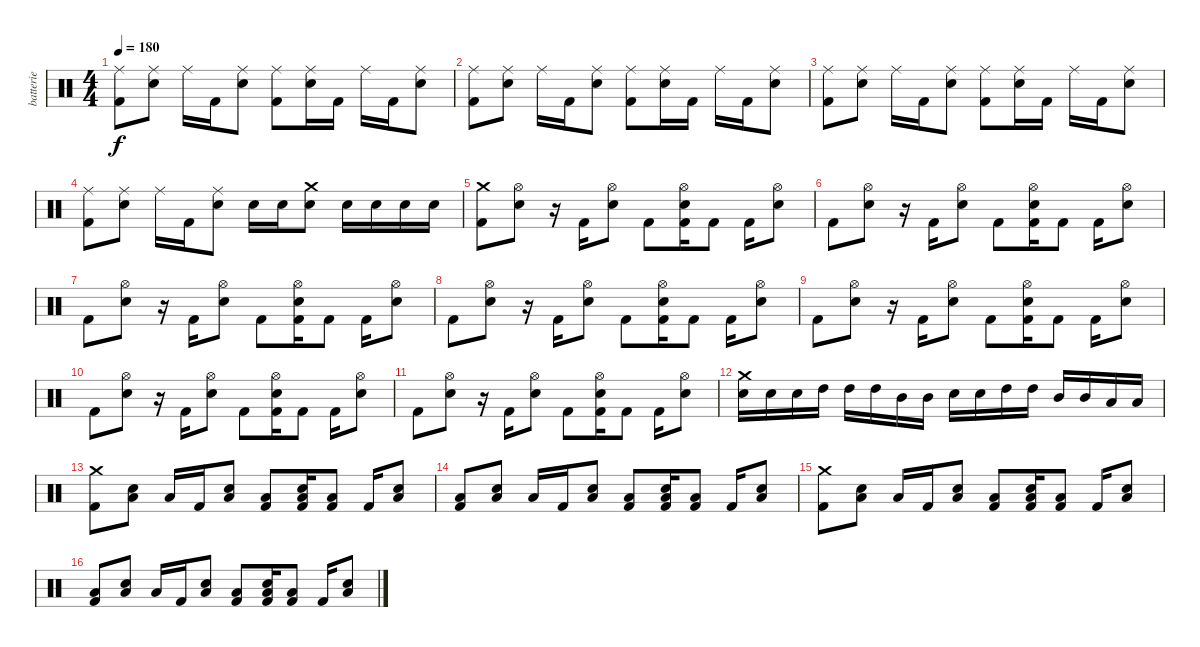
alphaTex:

\track ("batterie" "batterie") {instrument percussion}
\staff {score}
\articulation defaults
\ts (4 4)
\tempo 180
\clef neutral
\ks c
("Ride (middle)" "Kick (hit) 2").8{dy f} ("Ride (middle)" "Electric Snare (hit)").8 "Ride (middle)".16 "Kick (hit) 2".16 ("Ride (middle)" "Electric Snare (hit)").8 ("Ride (middle)" "Kick (hit) 2").8 ("Ride (middle)" "Electric Snare (hit)").16 "Kick (hit) 2".16 "Ride (middle)".16 "Kick (hit) 2".16 ("Ride (middle)" "Electric Snare (hit)").8 |
("Ride (middle)" "Kick (hit) 2").8 ("Ride (middle)" "Electric Snare (hit)").8 "Ride (middle)".16 "Kick (hit) 2".16 ("Ride (middle)" "Electric Snare (hit)").8 ("Ride (middle)" "Kick (hit) 2").8 ("Ride (middle)" "Electric Snare (hit)").16 "Kick (hit) 2".16 "Ride (middle)".16 "Kick (hit) 2".16 ("Ride (middle)" "Electric Snare (hit)").8 |
("Ride (middle)" "Kick (hit) 2").8 ("Ride (middle)" "Electric Snare (hit)").8 "Ride (middle)".16 "Kick (hit) 2".16 ("Ride (middle)" "Electric Snare (hit)").8 ("Ride (middle)" "Kick (hit) 2").8 ("Ride (middle)" "Electric Snare (hit)").16 "Kick (hit) 2".16 "Ride (middle)".16 "Kick (hit) 2".16 ("Ride (middle)" "Electric Snare (hit)").8 |
("Ride (middle)" "Kick (hit) 2").8 ("Ride (middle)" "Electric Snare (hit)").8 "Ride (middle)".16 "Kick (hit) 2".16 ("Ride (middle)" "Electric Snare (hit)").8 "Electric Snare (hit)".16 "Electric Snare (hit)".16 ("Crash medium (hit)" "Electric Snare (hit)").8 "Electric Snare (hit)".16 "Electric Snare (hit)".16 "Electric Snare (hit)".16 "Electric Snare (hit)".16 |
("Crash medium (hit)" "Kick (hit) 2").8 ("Hi-Hat (open)" "Electric Snare (hit)").8 r.16 "Kick (hit) 2".16 ("Hi-Hat (open)" "Electric Snare (hit)").8 "Kick (hit) 2".8 ("Hi-Hat (open)" "Electric Snare (hit)" "Kick (hit) 2").16 "Kick (hit) 2".8 "Kick (hit) 2".16 ("Hi-Hat (open)" "Electric Snare (hit)").8 |
"Kick (hit) 2".8 ("Hi-Hat (open)" "Electric Snare (hit)").8 r.16 "Kick (hit) 2".16 ("Hi-Hat (open)" "Electric Snare (hit)").8 "Kick (hit) 2".8 ("Hi-Hat (open)" "Electric Snare (hit)" "Kick (hit) 2").16 "Kick (hit) 2".8 "Kick (hit) 2".16 ("Hi-Hat (open)" "Electric Snare (hit)").8 |
"Kick (hit) 2".8 ("Hi-Hat (open)" "Electric Snare (hit)").8 r.16 "Kick (hit) 2".16 ("Hi-Hat (open)" "Electric Snare (hit)").8 "Kick (hit) 2".8 ("Hi-Hat (open)" "Electric Snare (hit)" "Kick (hit) 2").16 "Kick (hit) 2".8 "Kick (hit) 2".16 ("Hi-Hat (open)" "Electric Snare (hit)").8 |
"Kick (hit) 2".8 ("Hi-Hat (open)" "Electric Snare (hit)").8 r.16 "Kick (hit) 2".16 ("Hi-Hat (open)" "Electric Snare (hit)").8 "Kick (hit) 2".8 ("Hi-Hat (open)" "Electric Snare (hit)" "Kick (hit) 2").16 "Kick (hit) 2".8 "Kick (hit) 2".16 ("Hi-Hat (open)" "Electric Snare (hit)").8 |
"Kick (hit) 2".8 ("Hi-Hat (open)" "Electric Snare (hit)").8 r.16 "Kick (hit) 2".16 ("Hi-Hat (open)" "Electric Snare (hit)").8 "Kick (hit) 2".8 ("Hi-Hat (open)" "Electric Snare (hit)" "Kick (hit) 2").16 "Kick (hit) 2".8 "Kick (hit) 2".16 ("Hi-Hat (open)" "Electric Snare (hit)").8 |
"Kick (hit) 2".8 ("Hi-Hat (open)" "Electric Snare (hit)").8 r.16 "Kick (hit) 2".16 ("Hi-Hat (open)" "Electric Snare (hit)").8 "Kick (hit) 2".8 ("Hi-Hat (open)" "Electric Snare (hit)" "Kick (hit) 2").16 "Kick (hit) 2".8 "Kick (hit) 2".16 ("Hi-Hat (open)" "Electric Snare (hit)").8 |
"Kick (hit) 2".8 ("Hi-Hat (open)" "Electric Snare (hit)").8 r.16 "Kick (hit) 2".16 ("Hi-Hat (open)" "Electric Snare (hit)").8 "Kick (hit) 2".8 ("Hi-Hat (open)" "Electric Snare (hit)" "Kick (hit) 2").16 "Kick (hit) 2".8 "Kick (hit) 2".16 ("Hi-Hat (open)" "Electric Snare (hit)").8 |
("Crash medium (hit)" "Electric Snare (hit)").16 "Electric Snare (hit)".16 "Electric Snare (hit)".16 "High Tom (hit)".16 "High Tom (hit)".16 "High Tom (hit)".16 "Mid Tom (hit)".16 "Mid Tom (hit)".16 "Electric Snare (hit)".16 "Electric Snare (hit)".16 "High Tom (hit)".16 "High Tom (hit)".16 "Mid Tom (hit)".16 "Mid Tom (hit)".16 "Low Tom (hit)".16 "Low Tom (hit)".16 |
("Crash medium (hit)" "Kick (hit) 2").8 ("Low Tom (hit)" "Electric Snare (hit)").8 "Low Tom (hit)".16 "Kick (hit) 2".16 ("Low Tom (hit)" "Electric Snare (hit)").8 ("Low Tom (hit)" "Kick (hit) 2").8 ("Low Tom (hit)" "Electric Snare (hit)" "Kick (hit) 2").16 ("Low Tom (hit)" "Kick (hit) 2").8 "Kick (hit) 2".16 ("Low Tom (hit)" "Electric Snare (hit)").8 |
("Low Tom (hit)" "Kick (hit) 2").8 ("Low Tom (hit)" "Electric Snare (hit)").8 "Low Tom (hit)".16 "Kick (hit) 2".16 ("Low Tom (hit)" "Electric Snare (hit)").8 ("Low Tom (hit)" "Kick (hit) 2").8 ("Low Tom (hit)" "Electric Snare (hit)" "Kick (hit) 2").16 ("Low Tom (hit)" "Kick (hit) 2").8 "Kick (hit) 2".16 ("Low Tom (hit)" "Electric Snare (hit)").8 |
("Crash medium (hit)" "Kick (hit) 2").8 ("Low Tom (hit)" "Electric Snare (hit)").8 "Low Tom (hit)".16 "Kick (hit) 2".16 ("Low Tom (hit)" "Electric Snare (hit)").8 ("Low Tom (hit)" "Kick (hit) 2").8 ("Low Tom (hit)" "Electric Snare (hit)" "Kick (hit) 2").16 ("Low Tom (hit)" "Kick (hit) 2").8 "Kick (hit) 2".16 ("Low Tom (hit)" "Electric Snare (hit)").8 |
("Low Tom (hit)" "Kick (hit) 2").8 ("Low Tom (hit)" "Electric Snare (hit)").8 "Low Tom (hit)".16 "Kick (hit) 2".16 ("Low Tom (hit)" "Electric Snare (hit)").8 ("Low Tom (hit)" "Kick (hit) 2").8 ("Low Tom (hit)" "Electric Snare (hit)" "Kick (hit) 2").16 ("Low Tom (hit)" "Kick (hit) 2").8 "Kick (hit) 2".16 ("Low Tom (hit)" "Electric Snare (hit)").8
